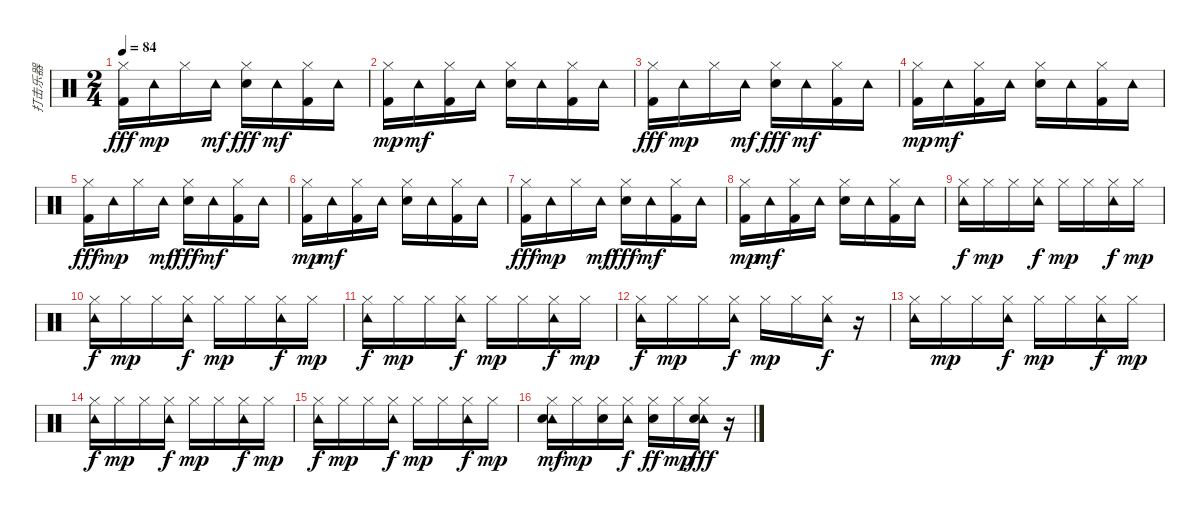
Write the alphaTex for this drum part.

\track ("打击乐器" "打击乐器") {instrument percussion}
\staff {score}
\articulation defaults
\ts (2 4)
\tempo 84
\clef neutral
\ks c
("Hi-Hat (closed)" "Kick (hit) 2").16{dy fff} "Tambourine (hit)".16{dy mp} "Hi-Hat (closed)".16 "Tambourine (hit)".16{dy mf} ("Hi-Hat (closed)" "Snare (hit) 2").16{dy fff} "Tambourine (hit)".16{dy mf} ("Hi-Hat (closed)" "Kick (hit) 2").16 "Tambourine (hit)".16 |
("Hi-Hat (closed)" "Kick (hit) 2").16{dy mp} "Tambourine (hit)".16{dy mf} ("Hi-Hat (closed)" "Kick (hit) 2").16 "Tambourine (hit)".16 ("Hi-Hat (closed)" "Snare (hit) 2").16 "Tambourine (hit)".16 ("Hi-Hat (closed)" "Kick (hit) 2").16 "Tambourine (hit)".16 |
("Hi-Hat (closed)" "Kick (hit) 2").16{dy fff} "Tambourine (hit)".16{dy mp} "Hi-Hat (closed)".16 "Tambourine (hit)".16{dy mf} ("Hi-Hat (closed)" "Snare (hit) 2").16{dy fff} "Tambourine (hit)".16{dy mf} ("Hi-Hat (closed)" "Kick (hit) 2").16 "Tambourine (hit)".16 |
("Hi-Hat (closed)" "Kick (hit) 2").16{dy mp} "Tambourine (hit)".16{dy mf} ("Hi-Hat (closed)" "Kick (hit) 2").16 "Tambourine (hit)".16 ("Hi-Hat (closed)" "Snare (hit) 2").16 "Tambourine (hit)".16 ("Hi-Hat (closed)" "Kick (hit) 2").16 "Tambourine (hit)".16 |
("Hi-Hat (closed)" "Kick (hit) 2").16{dy fff} "Tambourine (hit)".16{dy mp} "Hi-Hat (closed)".16 "Tambourine (hit)".16{dy mf} ("Hi-Hat (closed)" "Snare (hit) 2").16{dy fff} "Tambourine (hit)".16{dy mf} ("Hi-Hat (closed)" "Kick (hit) 2").16 "Tambourine (hit)".16 |
("Hi-Hat (closed)" "Kick (hit) 2").16{dy mp} "Tambourine (hit)".16{dy mf} ("Hi-Hat (closed)" "Kick (hit) 2").16 "Tambourine (hit)".16 ("Hi-Hat (closed)" "Snare (hit) 2").16 "Tambourine (hit)".16 ("Hi-Hat (closed)" "Kick (hit) 2").16 "Tambourine (hit)".16 |
("Hi-Hat (closed)" "Kick (hit) 2").16{dy fff} "Tambourine (hit)".16{dy mp} "Hi-Hat (closed)".16 "Tambourine (hit)".16{dy mf} ("Hi-Hat (closed)" "Snare (hit) 2").16{dy fff} "Tambourine (hit)".16{dy mf} ("Hi-Hat (closed)" "Kick (hit) 2").16 "Tambourine (hit)".16 |
("Hi-Hat (closed)" "Kick (hit) 2").16{dy mp} "Tambourine (hit)".16{dy mf} ("Hi-Hat (closed)" "Kick (hit) 2").16 "Tambourine (hit)".16 ("Hi-Hat (closed)" "Snare (hit) 2").16 "Tambourine (hit)".16 ("Hi-Hat (closed)" "Kick (hit) 2").16 "Tambourine (hit)".16 |
("Tambourine (hit)" "Hi-Hat (closed)").16{dy f} "Hi-Hat (closed)".16{dy mp} "Hi-Hat (closed)".16 ("Tambourine (hit)" "Hi-Hat (closed)").16{dy f} "Hi-Hat (closed)".16{dy mp} "Hi-Hat (closed)".16 ("Tambourine (hit)" "Hi-Hat (closed)").16{dy f} "Hi-Hat (closed)".16{dy mp} |
("Tambourine (hit)" "Hi-Hat (closed)").16{dy f} "Hi-Hat (closed)".16{dy mp} "Hi-Hat (closed)".16 ("Tambourine (hit)" "Hi-Hat (closed)").16{dy f} "Hi-Hat (closed)".16{dy mp} "Hi-Hat (closed)".16 ("Tambourine (hit)" "Hi-Hat (closed)").16{dy f} "Hi-Hat (closed)".16{dy mp} |
("Tambourine (hit)" "Hi-Hat (closed)").16{dy f} "Hi-Hat (closed)".16{dy mp} "Hi-Hat (closed)".16 ("Tambourine (hit)" "Hi-Hat (closed)").16{dy f} "Hi-Hat (closed)".16{dy mp} "Hi-Hat (closed)".16 ("Tambourine (hit)" "Hi-Hat (closed)").16{dy f} "Hi-Hat (closed)".16{dy mp} |
("Tambourine (hit)" "Hi-Hat (closed)").16{dy f} "Hi-Hat (closed)".16{dy mp} "Hi-Hat (closed)".16 ("Tambourine (hit)" "Hi-Hat (closed)").16{dy f} "Hi-Hat (closed)".16{dy mp} "Hi-Hat (closed)".16 ("Tambourine (hit)" "Hi-Hat (closed)").16{dy f} r.16 |
("Tambourine (hit)" "Hi-Hat (closed)").16 "Hi-Hat (closed)".16{dy mp} "Hi-Hat (closed)".16 ("Tambourine (hit)" "Hi-Hat (closed)").16{dy f} "Hi-Hat (closed)".16{dy mp} "Hi-Hat (closed)".16 ("Tambourine (hit)" "Hi-Hat (closed)").16{dy f} "Hi-Hat (closed)".16{dy mp} |
("Tambourine (hit)" "Hi-Hat (closed)").16{dy f} "Hi-Hat (closed)".16{dy mp} "Hi-Hat (closed)".16 ("Tambourine (hit)" "Hi-Hat (closed)").16{dy f} "Hi-Hat (closed)".16{dy mp} "Hi-Hat (closed)".16 ("Tambourine (hit)" "Hi-Hat (closed)").16{dy f} "Hi-Hat (closed)".16{dy mp} |
("Tambourine (hit)" "Hi-Hat (closed)").16{dy f} "Hi-Hat (closed)".16{dy mp} "Hi-Hat (closed)".16 ("Tambourine (hit)" "Hi-Hat (closed)").16{dy f} "Hi-Hat (closed)".16{dy mp} "Hi-Hat (closed)".16 ("Tambourine (hit)" "Hi-Hat (closed)").16{dy f} "Hi-Hat (closed)".16{dy mp} |
("Tambourine (hit)" "Hi-Hat (closed)" "Snare (hit) 2").16{dy mf} "Hi-Hat (closed)".16{dy mp} ("Hi-Hat (closed)" "Snare (hit) 2").16 ("Tambourine (hit)" "Hi-Hat (closed)").16{dy f} ("Hi-Hat (closed)" "Snare (hit) 2").16{dy ff} "Hi-Hat (closed)".16{dy mp} ("Tambourine (hit)" "Hi-Hat (closed)" "Snare (hit) 2").16{dy fff} r.16
